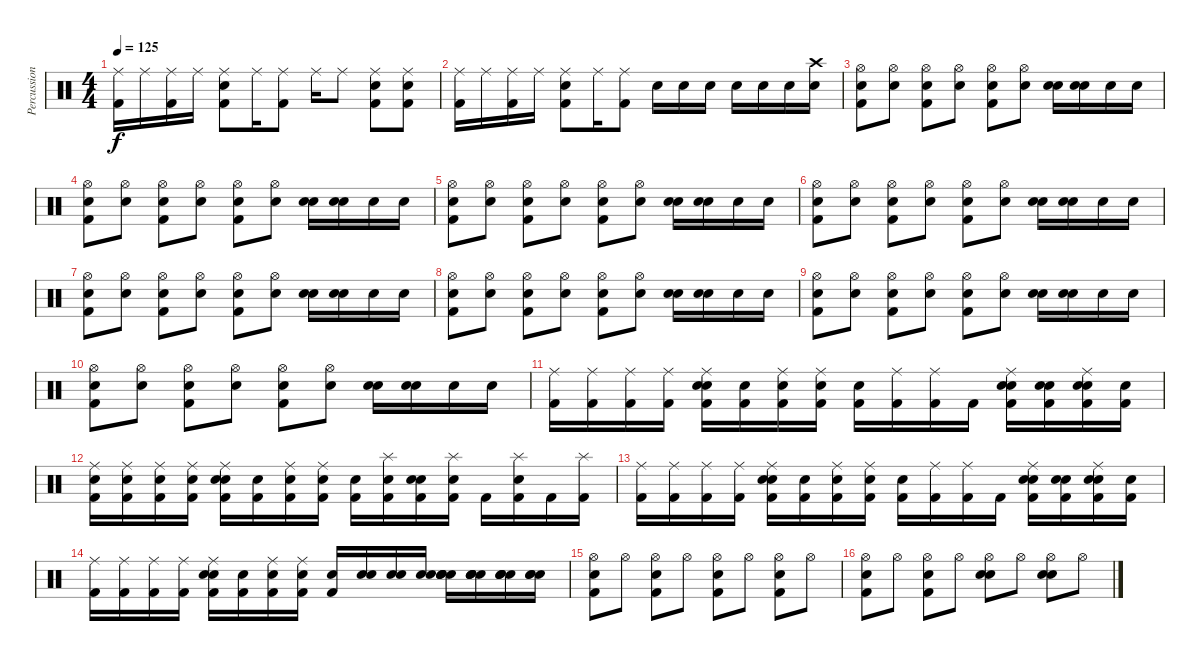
\track ("Percussions" "Percussion") {instrument percussion}
\staff {score}
\articulation defaults
\ts (4 4)
\tempo 125
\clef neutral
\ks c
("Ride (middle)" "Kick (hit) 2").16{dy f} "Ride (middle)".16 ("Ride (middle)" "Kick (hit) 2").16 "Ride (middle)".16 ("Ride (middle)" "Snare (hit) 2" "Kick (hit) 2").8 "Ride (middle)".16 ("Ride (middle)" "Kick (hit) 2").8 "Ride (middle)".16 "Ride (middle)".8 ("Ride (middle)" "Snare (hit) 2" "Kick (hit) 2").8 ("Ride (middle)" "Snare (hit) 2" "Kick (hit) 2").8 |
("Ride (middle)" "Kick (hit) 2").16 "Ride (middle)".16 ("Ride (middle)" "Kick (hit) 2").16 "Ride (middle)".16 ("Ride (middle)" "Snare (hit) 2" "Kick (hit) 2").8 "Ride (middle)".16 ("Ride (middle)" "Kick (hit) 2").8 "Snare (hit) 2".16 "Snare (hit) 2".16 "Snare (hit) 2".16 "Snare (hit) 2".16 "Snare (hit) 2".16 "Snare (hit) 2".16 ("Snare (hit) 2" "Crash high (hit)").16 |
("Hi-Hat (open)" "Snare (hit)" "Kick (hit) 2").8 ("Hi-Hat (open)" "Snare (hit) 2").8 ("Hi-Hat (open)" "Snare (hit)" "Kick (hit) 2").8 ("Hi-Hat (open)" "Snare (hit) 2").8 ("Hi-Hat (open)" "Snare (hit)" "Kick (hit) 2").8 ("Hi-Hat (open)" "Snare (hit) 2").8 ("Snare (hit)" "Snare (hit) 2").16 ("Snare (hit)" "Snare (hit) 2").16 "Snare (hit) 2".16 "Snare (hit) 2".16 |
("Hi-Hat (open)" "Snare (hit)" "Kick (hit) 2").8 ("Hi-Hat (open)" "Snare (hit) 2").8 ("Hi-Hat (open)" "Snare (hit)" "Kick (hit) 2").8 ("Hi-Hat (open)" "Snare (hit) 2").8 ("Hi-Hat (open)" "Snare (hit)" "Kick (hit) 2").8 ("Hi-Hat (open)" "Snare (hit) 2").8 ("Snare (hit)" "Snare (hit) 2").16 ("Snare (hit)" "Snare (hit) 2").16 "Snare (hit) 2".16 "Snare (hit) 2".16 |
("Hi-Hat (open)" "Snare (hit)" "Kick (hit) 2").8 ("Hi-Hat (open)" "Snare (hit) 2").8 ("Hi-Hat (open)" "Snare (hit)" "Kick (hit) 2").8 ("Hi-Hat (open)" "Snare (hit) 2").8 ("Hi-Hat (open)" "Snare (hit)" "Kick (hit) 2").8 ("Hi-Hat (open)" "Snare (hit) 2").8 ("Snare (hit)" "Snare (hit) 2").16 ("Snare (hit)" "Snare (hit) 2").16 "Snare (hit) 2".16 "Snare (hit) 2".16 |
("Hi-Hat (open)" "Snare (hit)" "Kick (hit) 2").8 ("Hi-Hat (open)" "Snare (hit) 2").8 ("Hi-Hat (open)" "Snare (hit)" "Kick (hit) 2").8 ("Hi-Hat (open)" "Snare (hit) 2").8 ("Hi-Hat (open)" "Snare (hit)" "Kick (hit) 2").8 ("Hi-Hat (open)" "Snare (hit) 2").8 ("Snare (hit)" "Snare (hit) 2").16 ("Snare (hit)" "Snare (hit) 2").16 "Snare (hit) 2".16 "Snare (hit) 2".16 |
("Hi-Hat (open)" "Snare (hit)" "Kick (hit) 2").8 ("Hi-Hat (open)" "Snare (hit) 2").8 ("Hi-Hat (open)" "Snare (hit)" "Kick (hit) 2").8 ("Hi-Hat (open)" "Snare (hit) 2").8 ("Hi-Hat (open)" "Snare (hit)" "Kick (hit) 2").8 ("Hi-Hat (open)" "Snare (hit) 2").8 ("Snare (hit)" "Snare (hit) 2").16 ("Snare (hit)" "Snare (hit) 2").16 "Snare (hit) 2".16 "Snare (hit) 2".16 |
("Hi-Hat (open)" "Snare (hit)" "Kick (hit) 2").8 ("Hi-Hat (open)" "Snare (hit) 2").8 ("Hi-Hat (open)" "Snare (hit)" "Kick (hit) 2").8 ("Hi-Hat (open)" "Snare (hit) 2").8 ("Hi-Hat (open)" "Snare (hit)" "Kick (hit) 2").8 ("Hi-Hat (open)" "Snare (hit) 2").8 ("Snare (hit)" "Snare (hit) 2").16 ("Snare (hit)" "Snare (hit) 2").16 "Snare (hit) 2".16 "Snare (hit) 2".16 |
("Hi-Hat (open)" "Snare (hit)" "Kick (hit) 2").8 ("Hi-Hat (open)" "Snare (hit) 2").8 ("Hi-Hat (open)" "Snare (hit)" "Kick (hit) 2").8 ("Hi-Hat (open)" "Snare (hit) 2").8 ("Hi-Hat (open)" "Snare (hit)" "Kick (hit) 2").8 ("Hi-Hat (open)" "Snare (hit) 2").8 ("Snare (hit)" "Snare (hit) 2").16 ("Snare (hit)" "Snare (hit) 2").16 "Snare (hit) 2".16 "Snare (hit) 2".16 |
("Hi-Hat (open)" "Snare (hit)" "Kick (hit) 2").8 ("Hi-Hat (open)" "Snare (hit) 2").8 ("Hi-Hat (open)" "Snare (hit)" "Kick (hit) 2").8 ("Hi-Hat (open)" "Snare (hit) 2").8 ("Hi-Hat (open)" "Snare (hit)" "Kick (hit) 2").8 ("Hi-Hat (open)" "Snare (hit) 2").8 ("Snare (hit)" "Snare (hit) 2").16 ("Snare (hit)" "Snare (hit) 2").16 "Snare (hit) 2".16 "Snare (hit) 2".16 |
("Ride (middle)" "Kick (hit) 2").16 ("Ride (middle)" "Kick (hit) 2").16 ("Ride (middle)" "Kick (hit) 2").16 ("Ride (middle)" "Kick (hit) 2").16 ("Ride (middle)" "Snare (hit) 2" "Snare (hit)" "Kick (hit) 2").16 ("Snare (hit)" "Kick (hit) 2").16 ("Ride (middle)" "Snare (hit)" "Kick (hit) 2").16 ("Ride (middle)" "Snare (hit)" "Kick (hit) 2").16 ("Snare (hit)" "Kick (hit) 2").16 ("Ride (middle)" "Kick (hit) 2").16 ("Ride (middle)" "Kick (hit) 2").16 "Kick (hit) 2".16 ("Ride (middle)" "Snare (hit) 2" "Snare (hit)" "Kick (hit) 2").16 ("Snare (hit)" "Snare (hit)" "Kick (hit) 2").16 ("Ride (middle)" "Snare (hit) 2" "Snare (hit)" "Kick (hit) 2").16 ("Snare (hit)" "Kick (hit) 2").16 |
("Ride (middle)" "Snare (hit)" "Kick (hit) 2").16 ("Ride (middle)" "Snare (hit)" "Kick (hit) 2").16 ("Ride (middle)" "Snare (hit)" "Kick (hit) 2").16 ("Ride (middle)" "Snare (hit)" "Kick (hit) 2").16 ("Ride (middle)" "Snare (hit) 2" "Snare (hit)" "Kick (hit) 2").16 ("Snare (hit)" "Kick (hit) 2").16 ("Ride (middle)" "Snare (hit)" "Kick (hit) 2").16 ("Ride (middle)" "Snare (hit)" "Kick (hit) 2").16 ("Snare (hit)" "Kick (hit) 2").16 ("Splash (hit)" "Snare (hit)" "Kick (hit) 2").16 ("Snare (hit)" "Snare (hit)" "Kick (hit) 2").16 ("Splash (hit)" "Snare (hit)" "Kick (hit) 2").16 "Kick (hit) 2".16 ("Splash (hit)" "Snare (hit)" "Kick (hit) 2").16 "Kick (hit) 2".16 ("Splash (hit)" "Kick (hit) 2").16 |
("Ride (middle)" "Kick (hit) 2").16 ("Ride (middle)" "Kick (hit) 2").16 ("Ride (middle)" "Kick (hit) 2").16 ("Ride (middle)" "Kick (hit) 2").16 ("Ride (middle)" "Snare (hit) 2" "Snare (hit)" "Kick (hit) 2").16 ("Snare (hit)" "Kick (hit) 2").16 ("Ride (middle)" "Snare (hit)" "Kick (hit) 2").16 ("Ride (middle)" "Snare (hit)" "Kick (hit) 2").16 ("Snare (hit)" "Kick (hit) 2").16 ("Ride (middle)" "Kick (hit) 2").16 ("Ride (middle)" "Kick (hit) 2").16 "Kick (hit) 2".16 ("Ride (middle)" "Snare (hit) 2" "Snare (hit)" "Kick (hit) 2").16 ("Snare (hit)" "Snare (hit)" "Kick (hit) 2").16 ("Ride (middle)" "Snare (hit) 2" "Snare (hit)" "Kick (hit) 2").16 ("Snare (hit)" "Kick (hit) 2").16 |
("Ride (middle)" "Kick (hit) 2").16 ("Ride (middle)" "Kick (hit) 2").16 ("Ride (middle)" "Kick (hit) 2").16 ("Ride (middle)" "Kick (hit) 2").16 ("Ride (middle)" "Snare (hit) 2" "Snare (hit)" "Kick (hit) 2").16 ("Snare (hit)" "Kick (hit) 2").16 ("Ride (middle)" "Snare (hit)" "Kick (hit) 2").16 ("Ride (middle)" "Snare (hit)" "Kick (hit) 2").16 ("Snare (hit)" "Kick (hit) 2").16 ("Snare (hit) 2" "Snare (hit)").16 ("Snare (hit) 2" "Snare (hit)").16 ("Snare (hit) 2" "Snare (hit)").16 ("Snare (hit) 2" "Snare (hit) 2" "Snare (hit)" "Snare (hit)").16 ("Snare (hit) 2" "Snare (hit)" "Snare (hit)" "Snare (hit)").16 ("Snare (hit) 2" "Snare (hit) 2" "Snare (hit)" "Snare (hit)").16 ("Snare (hit) 2" "Snare (hit)" "Snare (hit)").16 |
("Hi-Hat (open)" "Snare (hit) 2" "Kick (hit) 2").8 "Hi-Hat (open)".8 ("Hi-Hat (open)" "Snare (hit) 2" "Kick (hit) 2").8 "Hi-Hat (open)".8 ("Hi-Hat (open)" "Snare (hit) 2" "Kick (hit) 2").8 "Hi-Hat (open)".8 ("Hi-Hat (open)" "Snare (hit) 2" "Kick (hit) 2").8 "Hi-Hat (open)".8 |
("Hi-Hat (open)" "Snare (hit) 2" "Kick (hit) 2").8 "Hi-Hat (open)".8 ("Hi-Hat (open)" "Snare (hit) 2" "Kick (hit) 2").8 "Hi-Hat (open)".8 ("Hi-Hat (open)" "Snare (hit) 2" "Snare (hit)").8 "Hi-Hat (open)".8 ("Hi-Hat (open)" "Snare (hit) 2" "Snare (hit)").8 "Hi-Hat (open)".8
